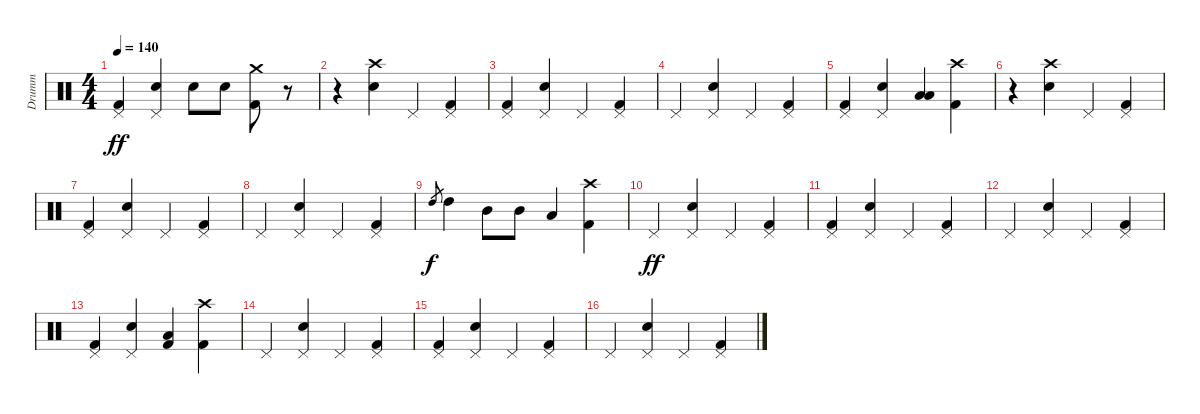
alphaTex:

\track ("Drumm" "Drumm") {instrument percussion}
\staff {score}
\articulation defaults
\ts (4 4)
\tempo 140
\clef neutral
\ks c
("Pedal Hi-Hat (hit)" "Kick (hit) 2").4{dy ff} ("Pedal Hi-Hat (hit)" "Snare (hit) 2").4 "Snare (hit) 2".8 "Snare (hit) 2".8 ("Crash medium (hit)" "Kick (hit) 2").8 r.8 |
r.4 ("Crash high (hit)" "Snare (hit) 2").4 "Pedal Hi-Hat (hit)".4 ("Pedal Hi-Hat (hit)" "Kick (hit) 2").4 |
("Pedal Hi-Hat (hit)" "Kick (hit) 2").4 ("Pedal Hi-Hat (hit)" "Snare (hit) 2").4 "Pedal Hi-Hat (hit)".4 ("Pedal Hi-Hat (hit)" "Kick (hit) 2").4 |
"Pedal Hi-Hat (hit)".4 ("Pedal Hi-Hat (hit)" "Snare (hit) 2").4 "Pedal Hi-Hat (hit)".4 ("Pedal Hi-Hat (hit)" "Kick (hit) 2").4 |
("Pedal Hi-Hat (hit)" "Kick (hit) 2").4 ("Pedal Hi-Hat (hit)" "Snare (hit) 2").4 ("Low Tom (hit)" "Low Tom (hit)").4 ("Crash high (hit)" "Kick (hit) 2").4 |
r.4 ("Crash high (hit)" "Snare (hit) 2").4 "Pedal Hi-Hat (hit)".4 ("Pedal Hi-Hat (hit)" "Kick (hit) 2").4 |
("Pedal Hi-Hat (hit)" "Kick (hit) 2").4 ("Pedal Hi-Hat (hit)" "Snare (hit) 2").4 "Pedal Hi-Hat (hit)".4 ("Pedal Hi-Hat (hit)" "Kick (hit) 2").4 |
"Pedal Hi-Hat (hit)".4 ("Pedal Hi-Hat (hit)" "Snare (hit) 2").4 "Pedal Hi-Hat (hit)".4 ("Pedal Hi-Hat (hit)" "Kick (hit) 2").4 |
"High Tom (hit)".8{gr dy f} "High Tom (hit)".4 "Mid Tom (hit)".8 "Mid Tom (hit)".8 "Low Tom (hit)".4 ("Crash high (hit)" "Kick (hit) 2").4 |
"Pedal Hi-Hat (hit)".4{dy ff} ("Pedal Hi-Hat (hit)" "Snare (hit) 2").4 "Pedal Hi-Hat (hit)".4 ("Pedal Hi-Hat (hit)" "Kick (hit) 2").4 |
("Pedal Hi-Hat (hit)" "Kick (hit) 2").4 ("Pedal Hi-Hat (hit)" "Snare (hit) 2").4 "Pedal Hi-Hat (hit)".4 ("Pedal Hi-Hat (hit)" "Kick (hit) 2").4 |
"Pedal Hi-Hat (hit)".4 ("Pedal Hi-Hat (hit)" "Snare (hit) 2").4 "Pedal Hi-Hat (hit)".4 ("Pedal Hi-Hat (hit)" "Kick (hit) 2").4 |
("Pedal Hi-Hat (hit)" "Kick (hit) 2").4 ("Pedal Hi-Hat (hit)" "Snare (hit) 2").4 ("Low Tom (hit)" "Kick (hit) 2").4 ("Crash high (hit)" "Kick (hit) 2").4 |
"Pedal Hi-Hat (hit)".4 ("Pedal Hi-Hat (hit)" "Snare (hit) 2").4 "Pedal Hi-Hat (hit)".4 ("Pedal Hi-Hat (hit)" "Kick (hit) 2").4 |
("Pedal Hi-Hat (hit)" "Kick (hit) 2").4 ("Pedal Hi-Hat (hit)" "Snare (hit) 2").4 "Pedal Hi-Hat (hit)".4 ("Pedal Hi-Hat (hit)" "Kick (hit) 2").4 |
"Pedal Hi-Hat (hit)".4 ("Pedal Hi-Hat (hit)" "Snare (hit) 2").4 "Pedal Hi-Hat (hit)".4 ("Pedal Hi-Hat (hit)" "Kick (hit) 2").4
